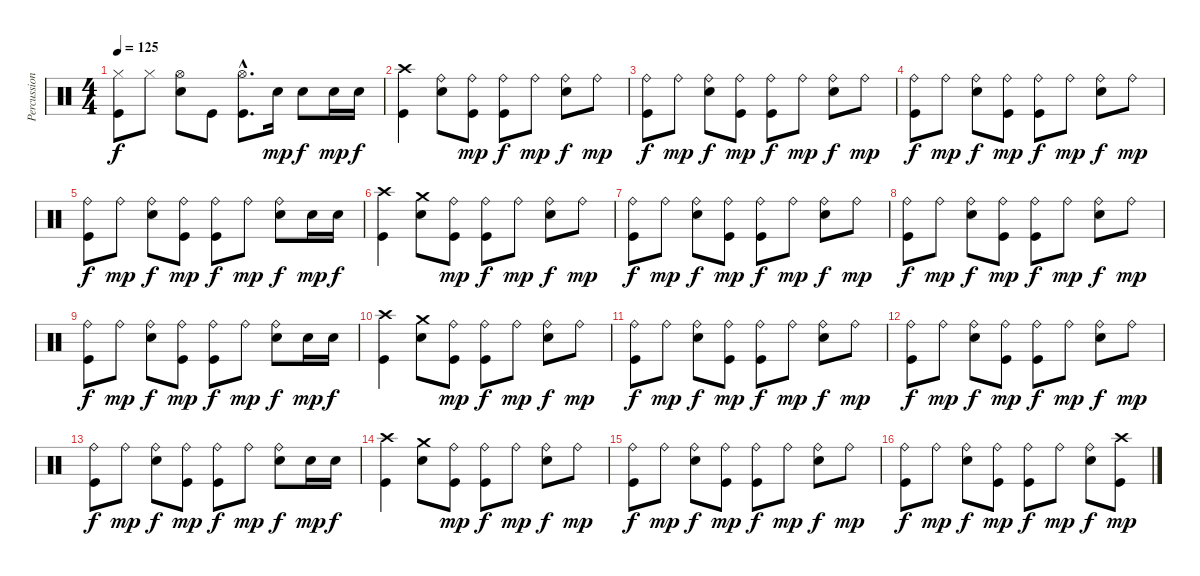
\track ("Percussion" "Percussion") {instrument percussion}
\staff {score}
\articulation defaults
\ts (4 4)
\tempo 125
\clef neutral
\ks c
("Hi-Hat (closed)" "Kick (hit)").8{dy f} "Hi-Hat (closed)".8 ("Hi-Hat (open)" "Electric Snare (hit)").8 "Kick (hit)".8 ("Hi-Hat (open)"{hac} "Kick (hit)"{hac}).8{d} "Electric Snare (hit)".16{dy mp} "Electric Snare (hit)".8{dy f} "Electric Snare (hit)".16{dy mp} "Electric Snare (hit)".16{dy f} |
("Crash high (hit)" "Kick (hit)").4 ("Ride (bell)" "Electric Snare (hit)").8 ("Ride (bell)" "Kick (hit)").8{dy mp} ("Ride (bell)" "Kick (hit)").8{dy f} "Ride (bell)".8{dy mp} ("Ride (bell)" "Electric Snare (hit)").8{dy f} "Ride (bell)".8{dy mp} |
("Ride (bell)" "Kick (hit)").8{dy f} "Ride (bell)".8{dy mp} ("Ride (bell)" "Electric Snare (hit)").8{dy f} ("Ride (bell)" "Kick (hit)").8{dy mp} ("Ride (bell)" "Kick (hit)").8{dy f} "Ride (bell)".8{dy mp} ("Ride (bell)" "Electric Snare (hit)").8{dy f} "Ride (bell)".8{dy mp} |
("Ride (bell)" "Kick (hit)").8{dy f} "Ride (bell)".8{dy mp} ("Ride (bell)" "Electric Snare (hit)").8{dy f} ("Ride (bell)" "Kick (hit)").8{dy mp} ("Ride (bell)" "Kick (hit)").8{dy f} "Ride (bell)".8{dy mp} ("Ride (bell)" "Electric Snare (hit)").8{dy f} "Ride (bell)".8{dy mp} |
("Ride (bell)" "Kick (hit)").8{dy f} "Ride (bell)".8{dy mp} ("Ride (bell)" "Electric Snare (hit)").8{dy f} ("Ride (bell)" "Kick (hit)").8{dy mp} ("Ride (bell)" "Kick (hit)").8{dy f} "Ride (bell)".8{dy mp} ("Ride (bell)" "Electric Snare (hit)").8{dy f} "Electric Snare (hit)".16{dy mp} "Electric Snare (hit)".16{dy f} |
("Crash high (hit)" "Kick (hit)").4 ("Crash medium (hit)" "Electric Snare (hit)").8 ("Ride (bell)" "Kick (hit)").8{dy mp} ("Ride (bell)" "Kick (hit)").8{dy f} "Ride (bell)".8{dy mp} ("Ride (bell)" "Electric Snare (hit)").8{dy f} "Ride (bell)".8{dy mp} |
("Ride (bell)" "Kick (hit)").8{dy f} "Ride (bell)".8{dy mp} ("Ride (bell)" "Electric Snare (hit)").8{dy f} ("Ride (bell)" "Kick (hit)").8{dy mp} ("Ride (bell)" "Kick (hit)").8{dy f} "Ride (bell)".8{dy mp} ("Ride (bell)" "Electric Snare (hit)").8{dy f} "Ride (bell)".8{dy mp} |
("Ride (bell)" "Kick (hit)").8{dy f} "Ride (bell)".8{dy mp} ("Ride (bell)" "Electric Snare (hit)").8{dy f} ("Ride (bell)" "Kick (hit)").8{dy mp} ("Ride (bell)" "Kick (hit)").8{dy f} "Ride (bell)".8{dy mp} ("Ride (bell)" "Electric Snare (hit)").8{dy f} "Ride (bell)".8{dy mp} |
("Ride (bell)" "Kick (hit)").8{dy f} "Ride (bell)".8{dy mp} ("Ride (bell)" "Electric Snare (hit)").8{dy f} ("Ride (bell)" "Kick (hit)").8{dy mp} ("Ride (bell)" "Kick (hit)").8{dy f} "Ride (bell)".8{dy mp} ("Ride (bell)" "Electric Snare (hit)").8{dy f} "Electric Snare (hit)".16{dy mp} "Electric Snare (hit)".16{dy f} |
("Crash high (hit)" "Kick (hit)").4 ("Crash medium (hit)" "Electric Snare (hit)").8 ("Ride (bell)" "Kick (hit)").8{dy mp} ("Ride (bell)" "Kick (hit)").8{dy f} "Ride (bell)".8{dy mp} ("Ride (bell)" "Electric Snare (hit)").8{dy f} "Ride (bell)".8{dy mp} |
("Ride (bell)" "Kick (hit)").8{dy f} "Ride (bell)".8{dy mp} ("Ride (bell)" "Electric Snare (hit)").8{dy f} ("Ride (bell)" "Kick (hit)").8{dy mp} ("Ride (bell)" "Kick (hit)").8{dy f} "Ride (bell)".8{dy mp} ("Ride (bell)" "Electric Snare (hit)").8{dy f} "Ride (bell)".8{dy mp} |
("Ride (bell)" "Kick (hit)").8{dy f} "Ride (bell)".8{dy mp} ("Ride (bell)" "Electric Snare (hit)").8{dy f} ("Ride (bell)" "Kick (hit)").8{dy mp} ("Ride (bell)" "Kick (hit)").8{dy f} "Ride (bell)".8{dy mp} ("Ride (bell)" "Electric Snare (hit)").8{dy f} "Ride (bell)".8{dy mp} |
("Ride (bell)" "Kick (hit)").8{dy f} "Ride (bell)".8{dy mp} ("Ride (bell)" "Electric Snare (hit)").8{dy f} ("Ride (bell)" "Kick (hit)").8{dy mp} ("Ride (bell)" "Kick (hit)").8{dy f} "Ride (bell)".8{dy mp} ("Ride (bell)" "Electric Snare (hit)").8{dy f} "Electric Snare (hit)".16{dy mp} "Electric Snare (hit)".16{dy f} |
("Crash high (hit)" "Kick (hit)").4 ("Crash medium (hit)" "Electric Snare (hit)").8 ("Ride (bell)" "Kick (hit)").8{dy mp} ("Ride (bell)" "Kick (hit)").8{dy f} "Ride (bell)".8{dy mp} ("Ride (bell)" "Electric Snare (hit)").8{dy f} "Ride (bell)".8{dy mp} |
("Ride (bell)" "Kick (hit)").8{dy f} "Ride (bell)".8{dy mp} ("Ride (bell)" "Electric Snare (hit)").8{dy f} ("Ride (bell)" "Kick (hit)").8{dy mp} ("Ride (bell)" "Kick (hit)").8{dy f} "Ride (bell)".8{dy mp} ("Ride (bell)" "Electric Snare (hit)").8{dy f} "Ride (bell)".8{dy mp} |
("Ride (bell)" "Kick (hit)").8{dy f} "Ride (bell)".8{dy mp} ("Ride (bell)" "Electric Snare (hit)").8{dy f} ("Ride (bell)" "Kick (hit)").8{dy mp} ("Ride (bell)" "Kick (hit)").8{dy f} "Ride (bell)".8{dy mp} ("Ride (bell)" "Electric Snare (hit)").8{dy f} ("Crash high (hit)" "Kick (hit)").8{dy mp}
